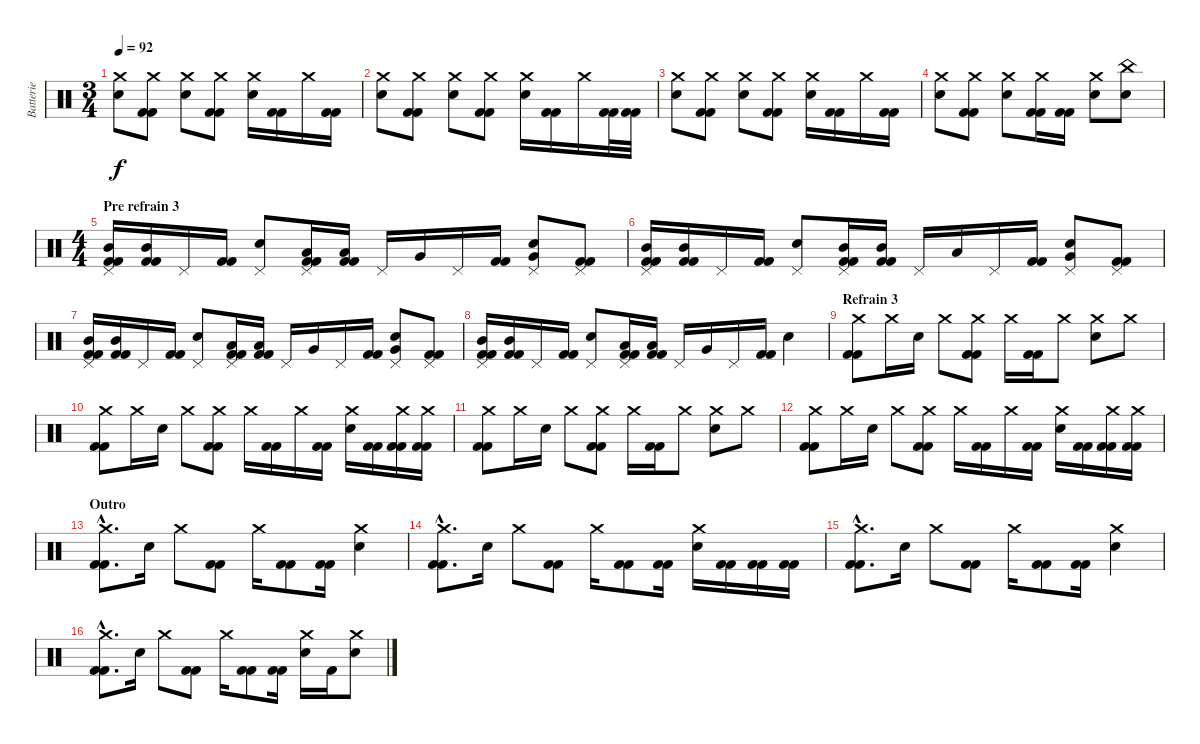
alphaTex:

\track ("Batterie" "Batterie") {instrument percussion}
\staff {score}
\articulation defaults
\ts (3 4)
\tempo 92
\clef neutral
\ks c
("Crash medium (hit)" "Electric Snare (hit)").8{dy f} ("Kick (hit) 2" "Crash medium (hit)" "Kick (hit) 2").8 ("Crash medium (hit)" "Electric Snare (hit)").8 ("Kick (hit) 2" "Crash medium (hit)" "Kick (hit) 2").8 ("Crash medium (hit)" "Electric Snare (hit)").16 ("Kick (hit) 2" "Kick (hit) 2").16 "Crash medium (hit)".16 ("Kick (hit) 2" "Kick (hit) 2").16 |
("Crash medium (hit)" "Electric Snare (hit)").8 ("Kick (hit) 2" "Crash medium (hit)" "Kick (hit) 2").8 ("Crash medium (hit)" "Electric Snare (hit)").8 ("Kick (hit) 2" "Crash medium (hit)" "Kick (hit) 2").8 ("Crash medium (hit)" "Electric Snare (hit)").16 ("Kick (hit) 2" "Kick (hit) 2").16 "Crash medium (hit)".16 ("Kick (hit) 2" "Kick (hit) 2").32 ("Kick (hit) 2" "Kick (hit) 2").32 |
("Crash medium (hit)" "Electric Snare (hit)").8 ("Kick (hit) 2" "Crash medium (hit)" "Kick (hit) 2").8 ("Crash medium (hit)" "Electric Snare (hit)").8 ("Kick (hit) 2" "Crash medium (hit)" "Kick (hit) 2").8 ("Crash medium (hit)" "Electric Snare (hit)").16 ("Kick (hit) 2" "Kick (hit) 2").16 "Crash medium (hit)".16 ("Kick (hit) 2" "Kick (hit) 2").16 |
("Crash medium (hit)" "Electric Snare (hit)").8 ("Kick (hit) 2" "Crash medium (hit)" "Kick (hit) 2").8 ("Crash medium (hit)" "Electric Snare (hit)").8 ("Kick (hit) 2" "Crash medium (hit)" "Kick (hit) 2").16 ("Kick (hit) 2" "Kick (hit) 2").16 ("Crash medium (hit)" "Electric Snare (hit)").8 ("China (hit)" "Electric Snare (hit)").8 |
\ts (4 4)
\section ("" "Pre refrain 3")
("Kick (hit) 2" "Pedal Hi-Hat (hit)" "Mid Tom (hit)" "Kick (hit) 2").16 ("Kick (hit) 2" "Mid Tom (hit)" "Kick (hit) 2").16 "Pedal Hi-Hat (hit)".16 ("Kick (hit) 2" "Kick (hit) 2").16 ("Pedal Hi-Hat (hit)" "Electric Snare (hit)").8 ("Kick (hit) 2" "Pedal Hi-Hat (hit)" "Low Tom (hit)" "Kick (hit) 2").16 ("Kick (hit) 2" "Low Tom (hit)" "Kick (hit) 2").16 "Pedal Hi-Hat (hit)".16 "Very Low Tom (hit)".16 "Pedal Hi-Hat (hit)".16 ("Kick (hit) 2" "Kick (hit) 2").16 ("Pedal Hi-Hat (hit)" "Very Low Tom (hit)" "Electric Snare (hit)").8 ("Kick (hit) 2" "Pedal Hi-Hat (hit)" "Kick (hit) 2").8 |
("Kick (hit) 2" "Pedal Hi-Hat (hit)" "Mid Tom (hit)" "Kick (hit) 2").16 ("Kick (hit) 2" "Mid Tom (hit)" "Kick (hit) 2").16 "Pedal Hi-Hat (hit)".16 ("Kick (hit) 2" "Kick (hit) 2").16 ("Pedal Hi-Hat (hit)" "Electric Snare (hit)").8 ("Kick (hit) 2" "Pedal Hi-Hat (hit)" "Mid Tom (hit)" "Kick (hit) 2").16 ("Kick (hit) 2" "Mid Tom (hit)" "Kick (hit) 2").16 "Pedal Hi-Hat (hit)".16 "Low Tom (hit)".16 "Pedal Hi-Hat (hit)".16 ("Kick (hit) 2" "Kick (hit) 2").16 ("Pedal Hi-Hat (hit)" "Very Low Tom (hit)" "Electric Snare (hit)").8 ("Kick (hit) 2" "Pedal Hi-Hat (hit)" "Kick (hit) 2").8 |
("Kick (hit) 2" "Pedal Hi-Hat (hit)" "Mid Tom (hit)" "Kick (hit) 2").16 ("Kick (hit) 2" "Mid Tom (hit)" "Kick (hit) 2").16 "Pedal Hi-Hat (hit)".16 ("Kick (hit) 2" "Kick (hit) 2").16 ("Pedal Hi-Hat (hit)" "Electric Snare (hit)").8 ("Kick (hit) 2" "Pedal Hi-Hat (hit)" "Low Tom (hit)" "Kick (hit) 2").16 ("Kick (hit) 2" "Low Tom (hit)" "Kick (hit) 2").16 "Pedal Hi-Hat (hit)".16 "Very Low Tom (hit)".16 "Pedal Hi-Hat (hit)".16 ("Kick (hit) 2" "Kick (hit) 2").16 ("Pedal Hi-Hat (hit)" "Very Low Tom (hit)" "Electric Snare (hit)").8 ("Kick (hit) 2" "Pedal Hi-Hat (hit)" "Kick (hit) 2").8 |
("Kick (hit) 2" "Pedal Hi-Hat (hit)" "Mid Tom (hit)" "Kick (hit) 2").16 ("Kick (hit) 2" "Mid Tom (hit)" "Kick (hit) 2").16 "Pedal Hi-Hat (hit)".16 ("Kick (hit) 2" "Kick (hit) 2").16 ("Pedal Hi-Hat (hit)" "Electric Snare (hit)").8 ("Kick (hit) 2" "Pedal Hi-Hat (hit)" "Low Tom (hit)" "Kick (hit) 2").16 ("Kick (hit) 2" "Low Tom (hit)" "Kick (hit) 2").16 "Pedal Hi-Hat (hit)".16 "Very Low Tom (hit)".16 "Pedal Hi-Hat (hit)".16 ("Kick (hit) 2" "Kick (hit) 2").16 "Electric Snare (hit)".4 |
\section ("" "Refrain 3")
("Kick (hit) 2" "Crash medium (hit)" "Kick (hit) 2").8 "Crash medium (hit)".16 "Electric Snare (hit)".16 "Crash medium (hit)".8 ("Kick (hit) 2" "Crash medium (hit)" "Kick (hit) 2").8 "Crash medium (hit)".16 ("Kick (hit) 2" "Kick (hit) 2").16 "Crash medium (hit)".8 ("Crash medium (hit)" "Electric Snare (hit)").8 "Crash medium (hit)".8 |
("Kick (hit) 2" "Crash medium (hit)" "Kick (hit) 2").8 "Crash medium (hit)".16 "Electric Snare (hit)".16 "Crash medium (hit)".8 ("Kick (hit) 2" "Crash medium (hit)" "Kick (hit) 2").8 "Crash medium (hit)".16 ("Kick (hit) 2" "Kick (hit) 2").16 "Crash medium (hit)".16 ("Kick (hit) 2" "Kick (hit) 2").16 ("Crash medium (hit)" "Electric Snare (hit)").16 ("Kick (hit) 2" "Kick (hit) 2").16 ("Kick (hit) 2" "Crash medium (hit)" "Kick (hit) 2").16 ("Kick (hit) 2" "Crash medium (hit)" "Kick (hit) 2").16 |
("Kick (hit) 2" "Crash medium (hit)" "Kick (hit) 2").8 "Crash medium (hit)".16 "Electric Snare (hit)".16 "Crash medium (hit)".8 ("Kick (hit) 2" "Crash medium (hit)" "Kick (hit) 2").8 "Crash medium (hit)".16 ("Kick (hit) 2" "Kick (hit) 2").16 "Crash medium (hit)".8 ("Crash medium (hit)" "Electric Snare (hit)").8 "Crash medium (hit)".8 |
("Kick (hit) 2" "Crash medium (hit)" "Kick (hit) 2").8 "Crash medium (hit)".16 "Electric Snare (hit)".16 "Crash medium (hit)".8 ("Kick (hit) 2" "Crash medium (hit)" "Kick (hit) 2").8 "Crash medium (hit)".16 ("Kick (hit) 2" "Kick (hit) 2").16 "Crash medium (hit)".16 ("Kick (hit) 2" "Kick (hit) 2").16 ("Crash medium (hit)" "Electric Snare (hit)").16 ("Kick (hit) 2" "Kick (hit) 2").16 ("Kick (hit) 2" "Crash medium (hit)" "Kick (hit) 2").16 ("Kick (hit) 2" "Crash medium (hit)" "Kick (hit) 2").16 |
\section ("" "Outro")
("Kick (hit) 2"{hac} "Crash medium (hit)"{hac} "Kick (hit) 2"{hac}).8{d} "Electric Snare (hit)".16 "Crash medium (hit)".8 ("Kick (hit) 2" "Kick (hit) 2").8 "Crash medium (hit)".16 ("Kick (hit) 2" "Kick (hit) 2").8 ("Kick (hit) 2" "Kick (hit) 2").16 ("Crash medium (hit)" "Electric Snare (hit)").4 |
("Kick (hit) 2"{hac} "Crash medium (hit)"{hac} "Kick (hit) 2"{hac}).8{d} "Electric Snare (hit)".16 "Crash medium (hit)".8 ("Kick (hit) 2" "Kick (hit) 2").8 "Crash medium (hit)".16 ("Kick (hit) 2" "Kick (hit) 2").8 ("Kick (hit) 2" "Kick (hit) 2").16 ("Crash medium (hit)" "Electric Snare (hit)").16 ("Kick (hit) 2" "Kick (hit) 2").16 ("Kick (hit) 2" "Kick (hit) 2").16 ("Kick (hit) 2" "Kick (hit) 2").16 |
("Kick (hit) 2"{hac} "Crash medium (hit)"{hac} "Kick (hit) 2"{hac}).8{d} "Electric Snare (hit)".16 "Crash medium (hit)".8 ("Kick (hit) 2" "Kick (hit) 2").8 "Crash medium (hit)".16 ("Kick (hit) 2" "Kick (hit) 2").8 ("Kick (hit) 2" "Kick (hit) 2").16 ("Crash medium (hit)" "Electric Snare (hit)").4 |
("Kick (hit) 2"{hac} "Crash medium (hit)"{hac} "Kick (hit) 2"{hac}).8{d} "Electric Snare (hit)".16 "Crash medium (hit)".8 ("Kick (hit) 2" "Kick (hit) 2").8 "Crash medium (hit)".16 ("Kick (hit) 2" "Kick (hit) 2").8 ("Kick (hit) 2" "Kick (hit) 2").16 ("Crash medium (hit)" "Electric Snare (hit)").16 "Kick (hit) 2".16 ("Crash medium (hit)" "Electric Snare (hit)").8
